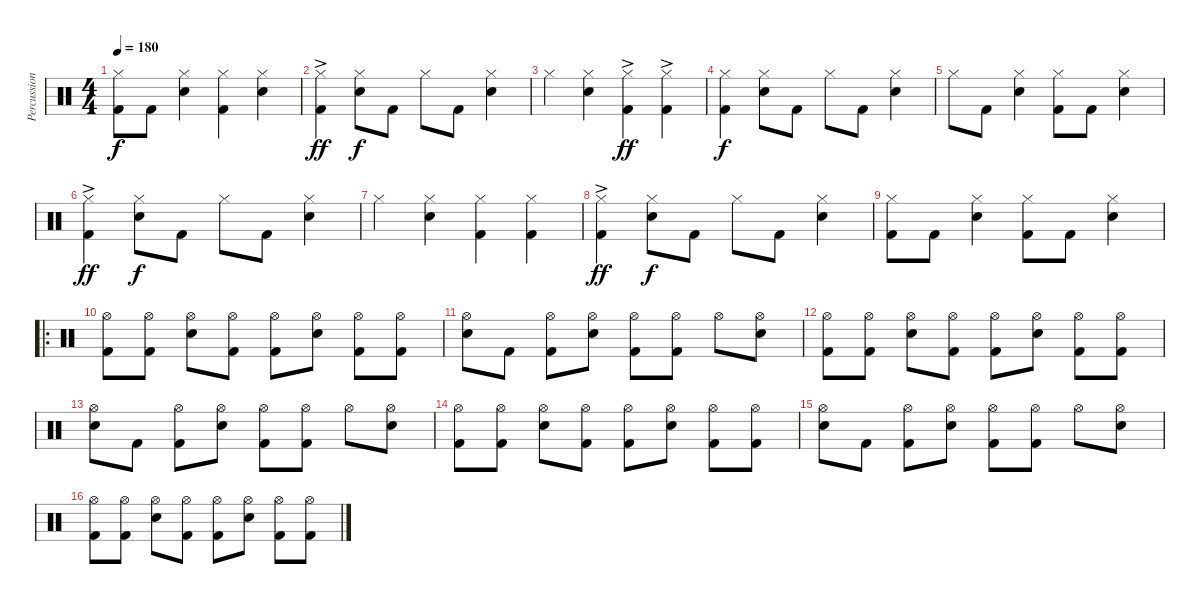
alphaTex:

\track ("Percussion" "Percussion") {instrument percussion}
\staff {score}
\articulation defaults
\ts (4 4)
\tempo 180
\clef neutral
\ks c
("Hi-Hat (closed)" "Kick (hit) 2").8{dy f} "Kick (hit) 2".8 ("Hi-Hat (closed)" "Snare (hit) 2").4 ("Hi-Hat (closed)" "Kick (hit) 2").4 ("Hi-Hat (closed)" "Snare (hit) 2").4 |
("Hi-Hat (closed)"{ac} "Kick (hit) 2").4{dy ff} ("Hi-Hat (closed)" "Snare (hit) 2").8{dy f} "Kick (hit) 2".8 "Hi-Hat (closed)".8 "Kick (hit) 2".8 ("Hi-Hat (closed)" "Snare (hit) 2").4 |
"Hi-Hat (closed)".4 ("Hi-Hat (closed)" "Snare (hit) 2").4 ("Hi-Hat (closed)"{ac} "Kick (hit) 2").4{dy ff} ("Hi-Hat (closed)"{ac} "Kick (hit) 2").4 |
("Hi-Hat (closed)" "Kick (hit) 2").4{dy f} ("Hi-Hat (closed)" "Snare (hit) 2").8 "Kick (hit) 2".8 "Hi-Hat (closed)".8 "Kick (hit) 2".8 ("Hi-Hat (closed)" "Snare (hit) 2").4 |
"Hi-Hat (closed)".8 "Kick (hit) 2".8 ("Hi-Hat (closed)" "Snare (hit) 2").4 ("Hi-Hat (closed)" "Kick (hit) 2").8 "Kick (hit) 2".8 ("Hi-Hat (closed)" "Snare (hit) 2").4 |
("Hi-Hat (closed)"{ac} "Kick (hit) 2").4{dy ff} ("Hi-Hat (closed)" "Snare (hit) 2").8{dy f} "Kick (hit) 2".8 "Hi-Hat (closed)".8 "Kick (hit) 2".8 ("Hi-Hat (closed)" "Snare (hit) 2").4 |
"Hi-Hat (closed)".4 ("Hi-Hat (closed)" "Snare (hit) 2").4 ("Hi-Hat (closed)" "Kick (hit) 2").4 ("Hi-Hat (closed)" "Kick (hit) 2").4 |
("Hi-Hat (closed)"{ac} "Kick (hit) 2").4{dy ff} ("Hi-Hat (closed)" "Snare (hit) 2").8{dy f} "Kick (hit) 2".8 "Hi-Hat (closed)".8 "Kick (hit) 2".8 ("Hi-Hat (closed)" "Snare (hit) 2").4 |
("Hi-Hat (closed)" "Kick (hit) 2").8 "Kick (hit) 2".8 ("Hi-Hat (closed)" "Snare (hit) 2").4 ("Hi-Hat (closed)" "Kick (hit) 2").8 "Kick (hit) 2".8 ("Hi-Hat (closed)" "Snare (hit) 2").4 |
\ro
("Hi-Hat (open)" "Kick (hit) 2").8 ("Hi-Hat (open)" "Kick (hit) 2").8 ("Hi-Hat (open)" "Snare (hit) 2").8 ("Hi-Hat (open)" "Kick (hit) 2").8 ("Hi-Hat (open)" "Kick (hit) 2").8 ("Hi-Hat (open)" "Snare (hit) 2").8 ("Hi-Hat (open)" "Kick (hit) 2").8 ("Hi-Hat (open)" "Kick (hit) 2").8 |
("Hi-Hat (open)" "Snare (hit) 2").8 "Kick (hit) 2".8 ("Hi-Hat (open)" "Kick (hit) 2").8 ("Hi-Hat (open)" "Snare (hit) 2").8 ("Hi-Hat (open)" "Kick (hit) 2").8 ("Hi-Hat (open)" "Kick (hit) 2").8 "Hi-Hat (open)".8 ("Hi-Hat (open)" "Snare (hit) 2").8 |
("Hi-Hat (open)" "Kick (hit) 2").8 ("Hi-Hat (open)" "Kick (hit) 2").8 ("Hi-Hat (open)" "Snare (hit) 2").8 ("Hi-Hat (open)" "Kick (hit) 2").8 ("Hi-Hat (open)" "Kick (hit) 2").8 ("Hi-Hat (open)" "Snare (hit) 2").8 ("Hi-Hat (open)" "Kick (hit) 2").8 ("Hi-Hat (open)" "Kick (hit) 2").8 |
("Hi-Hat (open)" "Snare (hit) 2").8 "Kick (hit) 2".8 ("Hi-Hat (open)" "Kick (hit) 2").8 ("Hi-Hat (open)" "Snare (hit) 2").8 ("Hi-Hat (open)" "Kick (hit) 2").8 ("Hi-Hat (open)" "Kick (hit) 2").8 "Hi-Hat (open)".8 ("Hi-Hat (open)" "Snare (hit) 2").8 |
("Hi-Hat (open)" "Kick (hit) 2").8 ("Hi-Hat (open)" "Kick (hit) 2").8 ("Hi-Hat (open)" "Snare (hit) 2").8 ("Hi-Hat (open)" "Kick (hit) 2").8 ("Hi-Hat (open)" "Kick (hit) 2").8 ("Hi-Hat (open)" "Snare (hit) 2").8 ("Hi-Hat (open)" "Kick (hit) 2").8 ("Hi-Hat (open)" "Kick (hit) 2").8 |
("Hi-Hat (open)" "Snare (hit) 2").8 "Kick (hit) 2".8 ("Hi-Hat (open)" "Kick (hit) 2").8 ("Hi-Hat (open)" "Snare (hit) 2").8 ("Hi-Hat (open)" "Kick (hit) 2").8 ("Hi-Hat (open)" "Kick (hit) 2").8 "Hi-Hat (open)".8 ("Hi-Hat (open)" "Snare (hit) 2").8 |
("Hi-Hat (open)" "Kick (hit) 2").8 ("Hi-Hat (open)" "Kick (hit) 2").8 ("Hi-Hat (open)" "Snare (hit) 2").8 ("Hi-Hat (open)" "Kick (hit) 2").8 ("Hi-Hat (open)" "Kick (hit) 2").8 ("Hi-Hat (open)" "Snare (hit) 2").8 ("Hi-Hat (open)" "Kick (hit) 2").8 ("Hi-Hat (open)" "Kick (hit) 2").8
